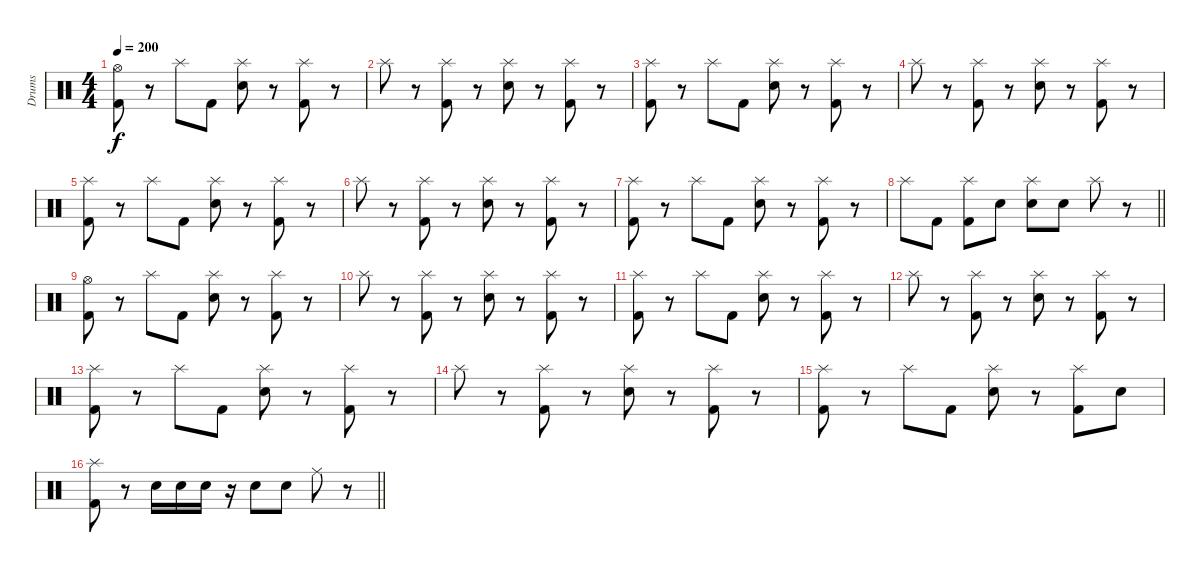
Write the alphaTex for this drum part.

\track ("Drums" "Drums") {instrument percussion}
\staff {score}
\articulation defaults
\ts (4 4)
\tempo 200
\clef neutral
\ks c
("Hi-Hat (open)" "Kick (hit) 2").8{dy f} r.8 "Splash (hit)".8 "Kick (hit) 2".8 ("Splash (hit)" "Electric Snare (hit)").8 r.8 ("Splash (hit)" "Kick (hit) 2").8 r.8 |
"Splash (hit)".8 r.8 ("Splash (hit)" "Kick (hit) 2").8 r.8 ("Splash (hit)" "Electric Snare (hit)").8 r.8 ("Splash (hit)" "Kick (hit) 2").8 r.8 |
("Splash (hit)" "Kick (hit) 2").8 r.8 "Splash (hit)".8 "Kick (hit) 2".8 ("Splash (hit)" "Electric Snare (hit)").8 r.8 ("Splash (hit)" "Kick (hit) 2").8 r.8 |
"Splash (hit)".8 r.8 ("Splash (hit)" "Kick (hit) 2").8 r.8 ("Splash (hit)" "Electric Snare (hit)").8 r.8 ("Splash (hit)" "Kick (hit) 2").8 r.8 |
("Splash (hit)" "Kick (hit) 2").8 r.8 "Splash (hit)".8 "Kick (hit) 2".8 ("Splash (hit)" "Electric Snare (hit)").8 r.8 ("Splash (hit)" "Kick (hit) 2").8 r.8 |
"Splash (hit)".8 r.8 ("Splash (hit)" "Kick (hit) 2").8 r.8 ("Splash (hit)" "Electric Snare (hit)").8 r.8 ("Splash (hit)" "Kick (hit) 2").8 r.8 |
("Splash (hit)" "Kick (hit) 2").8 r.8 "Splash (hit)".8 "Kick (hit) 2".8 ("Splash (hit)" "Electric Snare (hit)").8 r.8 ("Splash (hit)" "Kick (hit) 2").8 r.8 |
\barLineRight lightlight "Splash (hit)".8 "Kick (hit) 2".8
("Splash (hit)" "Kick (hit) 2").8 "Electric Snare (hit)".8 ("Splash (hit)" "Electric Snare (hit)").8 "Electric Snare (hit)".8 "Splash (hit)".8 r.8 |
("Hi-Hat (open)" "Kick (hit) 2").8 r.8 "Splash (hit)".8 "Kick (hit) 2".8 ("Splash (hit)" "Electric Snare (hit)").8 r.8 ("Splash (hit)" "Kick (hit) 2").8 r.8 |
"Splash (hit)".8 r.8 ("Splash (hit)" "Kick (hit) 2").8 r.8 ("Splash (hit)" "Electric Snare (hit)").8 r.8 ("Splash (hit)" "Kick (hit) 2").8 r.8 |
("Splash (hit)" "Kick (hit) 2").8 r.8 "Splash (hit)".8 "Kick (hit) 2".8 ("Splash (hit)" "Electric Snare (hit)").8 r.8 ("Splash (hit)" "Kick (hit) 2").8 r.8 |
"Splash (hit)".8 r.8 ("Splash (hit)" "Kick (hit) 2").8 r.8 ("Splash (hit)" "Electric Snare (hit)").8 r.8 ("Splash (hit)" "Kick (hit) 2").8 r.8 |
("Splash (hit)" "Kick (hit) 2").8 r.8 "Splash (hit)".8 "Kick (hit) 2".8 ("Splash (hit)" "Electric Snare (hit)").8 r.8 ("Splash (hit)" "Kick (hit) 2").8 r.8 |
"Splash (hit)".8 r.8 ("Splash (hit)" "Kick (hit) 2").8 r.8 ("Splash (hit)" "Electric Snare (hit)").8 r.8 ("Splash (hit)" "Kick (hit) 2").8 r.8 |
("Splash (hit)" "Kick (hit) 2").8 r.8 "Splash (hit)".8 "Kick (hit) 2".8 ("Splash (hit)" "Electric Snare (hit)").8 r.8 ("Splash (hit)" "Kick (hit) 2").8 "Electric Snare (hit)".8 |
\barLineRight lightlight
("Splash (hit)" "Kick (hit) 2").8 r.8 "Electric Snare (hit)".16 "Electric Snare (hit)".16 "Electric Snare (hit)".16 r.16 "Electric Snare (hit)".8 "Electric Snare (hit)".8 "Ride (middle)".8 r.8
